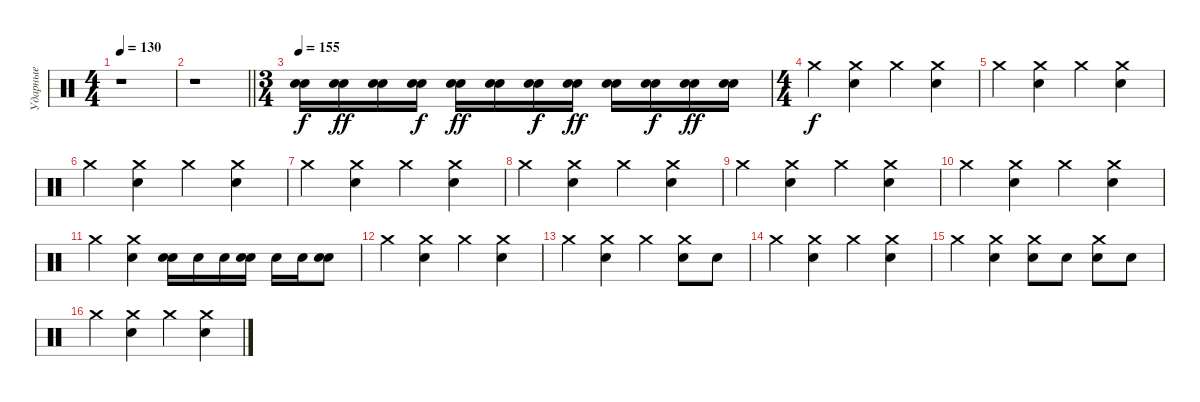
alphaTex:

\track ("Ударные" "Ударные") {instrument percussion}
\staff {score}
\articulation defaults
\ts (4 4)
\tempo 130
\clef neutral
\ks c
r.1{dy f} |
\barLineRight lightlight
r.1 |
\ts (3 4)
\tempo 155
("Electric Snare (hit)" "Snare (hit) 2").16 ("Electric Snare (hit)" "Electric Snare (hit)").16{dy ff} ("Electric Snare (hit)" "Electric Snare (hit)").16 ("Electric Snare (hit)" "Snare (hit) 2").16{dy f} ("Electric Snare (hit)" "Electric Snare (hit)").16{dy ff} ("Electric Snare (hit)" "Electric Snare (hit)").16 ("Electric Snare (hit)" "Snare (hit) 2").16{dy f} ("Electric Snare (hit)" "Electric Snare (hit)").16{dy ff} ("Electric Snare (hit)" "Electric Snare (hit)").16 ("Electric Snare (hit)" "Snare (hit) 2").16{dy f} ("Electric Snare (hit)" "Electric Snare (hit)").16{dy ff} ("Electric Snare (hit)" "Electric Snare (hit)").16 |
\ts (4 4)
"Crash medium (hit)".4{dy f} ("Crash medium (hit)" "Electric Snare (hit)").4 "Crash medium (hit)".4 ("Crash medium (hit)" "Electric Snare (hit)").4 |
"Crash medium (hit)".4 ("Crash medium (hit)" "Electric Snare (hit)").4 "Crash medium (hit)".4 ("Crash medium (hit)" "Electric Snare (hit)").4 |
"Crash medium (hit)".4 ("Crash medium (hit)" "Electric Snare (hit)").4 "Crash medium (hit)".4 ("Crash medium (hit)" "Electric Snare (hit)").4 |
"Crash medium (hit)".4 ("Crash medium (hit)" "Electric Snare (hit)").4 "Crash medium (hit)".4 ("Crash medium (hit)" "Electric Snare (hit)").4 |
"Crash medium (hit)".4 ("Crash medium (hit)" "Electric Snare (hit)").4 "Crash medium (hit)".4 ("Crash medium (hit)" "Electric Snare (hit)").4 |
"Crash medium (hit)".4 ("Crash medium (hit)" "Electric Snare (hit)").4 "Crash medium (hit)".4 ("Crash medium (hit)" "Electric Snare (hit)").4 |
"Crash medium (hit)".4 ("Crash medium (hit)" "Electric Snare (hit)").4 "Crash medium (hit)".4 ("Crash medium (hit)" "Electric Snare (hit)").4 |
"Crash medium (hit)".4 ("Crash medium (hit)" "Electric Snare (hit)").4 ("Electric Snare (hit)" "Snare (hit) 2").16 "Electric Snare (hit)".16 "Electric Snare (hit)".16 ("Electric Snare (hit)" "Snare (hit) 2").16 "Electric Snare (hit)".16 "Electric Snare (hit)".16 ("Electric Snare (hit)" "Snare (hit) 2").8 |
"Crash medium (hit)".4 ("Crash medium (hit)" "Electric Snare (hit)").4 "Crash medium (hit)".4 ("Crash medium (hit)" "Electric Snare (hit)").4 |
"Crash medium (hit)".4 ("Crash medium (hit)" "Electric Snare (hit)").4 "Crash medium (hit)".4 ("Crash medium (hit)" "Electric Snare (hit)").8 "Electric Snare (hit)".8 |
"Crash medium (hit)".4 ("Crash medium (hit)" "Electric Snare (hit)").4 "Crash medium (hit)".4 ("Crash medium (hit)" "Electric Snare (hit)").4 |
"Crash medium (hit)".4 ("Crash medium (hit)" "Electric Snare (hit)").4 ("Crash medium (hit)" "Electric Snare (hit)").8 "Snare (hit) 2".8 ("Crash medium (hit)" "Electric Snare (hit)").8 "Snare (hit) 2".8 |
"Crash medium (hit)".4 ("Crash medium (hit)" "Electric Snare (hit)").4 "Crash medium (hit)".4 ("Crash medium (hit)" "Electric Snare (hit)").4
